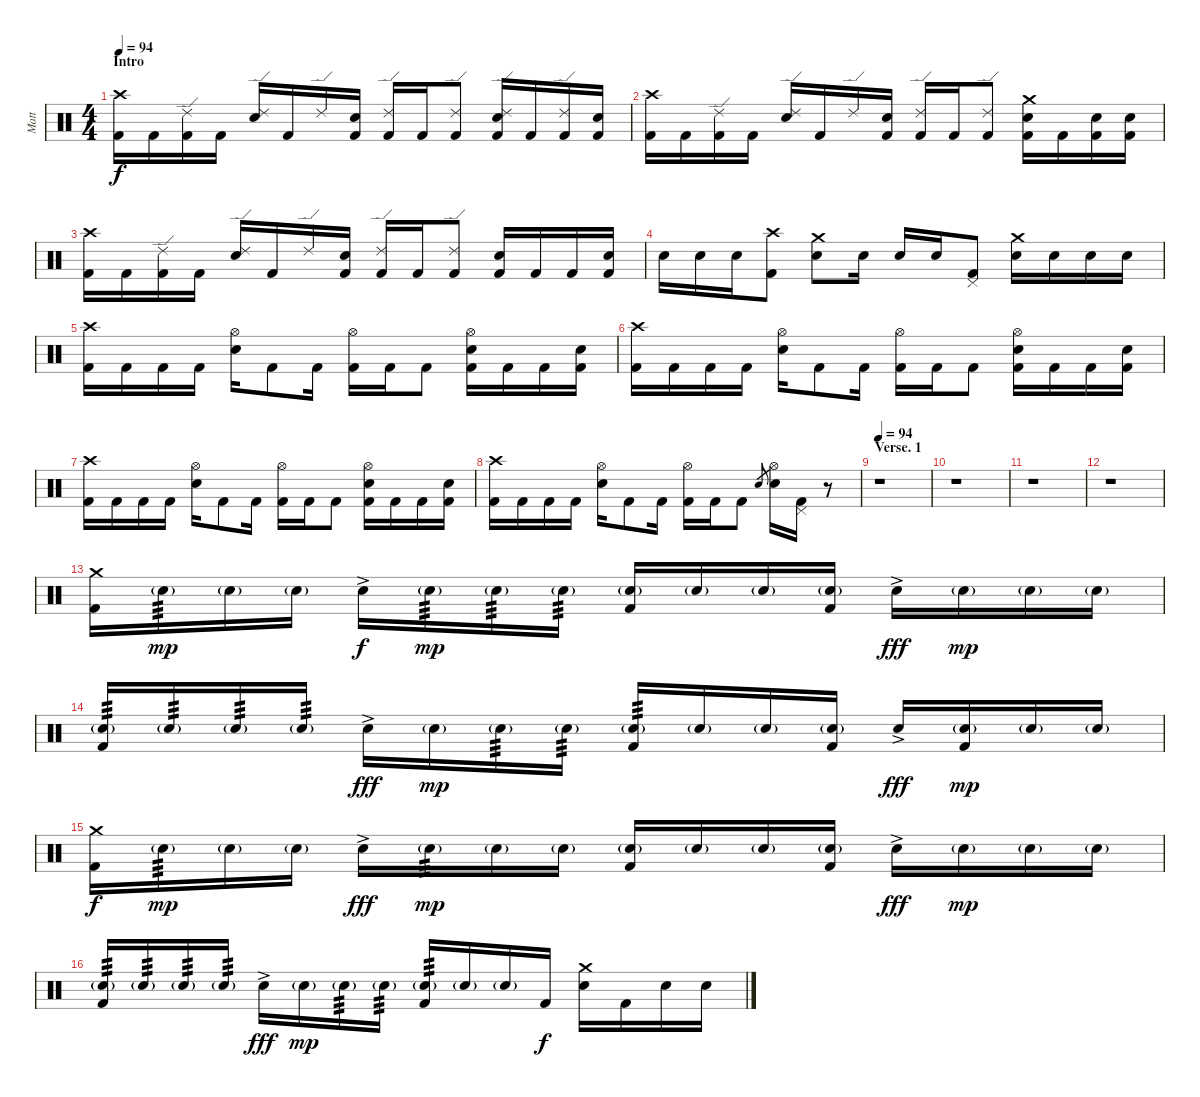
\track ("Matt" "Matt") {instrument percussion}
\staff {score}
\articulation defaults
\ts (4 4)
\section ("" "Intro")
\tempo 94
\clef neutral
\ks c
("Crash high (hit)" "Kick (hit) 2").16{dy f} "Kick (hit) 2".16 ("Ride (edge) 2" "Kick (hit) 2").16 "Kick (hit) 2".16 ("Ride (edge) 2" "Electric Snare (hit)").16 "Kick (hit) 2".16 "Ride (edge) 2".16 ("Electric Snare (hit)" "Kick (hit) 2").16 ("Ride (edge) 2" "Kick (hit) 2").16 "Kick (hit) 2".16 ("Ride (edge) 2" "Kick (hit) 2").8 ("Ride (edge) 2" "Electric Snare (hit)" "Kick (hit) 2").16 "Kick (hit) 2".16 ("Ride (edge) 2" "Kick (hit) 2").16 ("Electric Snare (hit)" "Kick (hit) 2").16 |
("Crash high (hit)" "Kick (hit) 2").16 "Kick (hit) 2".16 ("Ride (edge) 2" "Kick (hit) 2").16 "Kick (hit) 2".16 ("Ride (edge) 2" "Electric Snare (hit)").16 "Kick (hit) 2".16 "Ride (edge) 2".16 ("Electric Snare (hit)" "Kick (hit) 2").16 ("Ride (edge) 2" "Kick (hit) 2").16 "Kick (hit) 2".16 ("Ride (edge) 2" "Kick (hit) 2").8 ("Crash medium (hit)" "Electric Snare (hit)" "Kick (hit) 2").16 "Kick (hit) 2".16 ("Electric Snare (hit)" "Kick (hit) 2").16 ("Electric Snare (hit)" "Kick (hit) 2").16 |
("Crash high (hit)" "Kick (hit) 2").16 "Kick (hit) 2".16 ("Ride (edge) 2" "Kick (hit) 2").16 "Kick (hit) 2".16 ("Ride (edge) 2" "Electric Snare (hit)").16 "Kick (hit) 2".16 "Ride (edge) 2".16 ("Electric Snare (hit)" "Kick (hit) 2").16 ("Ride (edge) 2" "Kick (hit) 2").16 "Kick (hit) 2".16 ("Ride (edge) 2" "Kick (hit) 2").8 ("Electric Snare (hit)" "Kick (hit) 2").16 "Kick (hit) 2".16 "Kick (hit) 2".16 ("Electric Snare (hit)" "Kick (hit) 2").16 |
"Electric Snare (hit)".16 "Electric Snare (hit)".16 "Electric Snare (hit)".16 ("Crash high (hit)" "Kick (hit) 2").8 ("Crash medium (hit)" "Electric Snare (hit)").8 "Electric Snare (hit)".16 "Electric Snare (hit)".16 "Electric Snare (hit)".16 ("Pedal Hi-Hat (hit)" "Kick (hit) 2").8 ("Crash medium (hit)" "Electric Snare (hit)").16 "Electric Snare (hit)".16 "Electric Snare (hit)".16 "Electric Snare (hit)".16 |
("Crash high (hit)" "Kick (hit) 2").16 "Kick (hit) 2".16 "Kick (hit) 2".16 "Kick (hit) 2".16 ("Hi-Hat (open)" "Electric Snare (hit)").16 "Kick (hit) 2".8 "Kick (hit) 2".16 ("Hi-Hat (open)" "Kick (hit) 2").16 "Kick (hit) 2".16 "Kick (hit) 2".8 ("Hi-Hat (open)" "Electric Snare (hit)" "Kick (hit) 2").16 "Kick (hit) 2".16 "Kick (hit) 2".16 ("Electric Snare (hit)" "Kick (hit) 2").16 |
("Crash high (hit)" "Kick (hit) 2").16 "Kick (hit) 2".16 "Kick (hit) 2".16 "Kick (hit) 2".16 ("Hi-Hat (open)" "Electric Snare (hit)").16 "Kick (hit) 2".8 "Kick (hit) 2".16 ("Hi-Hat (open)" "Kick (hit) 2").16 "Kick (hit) 2".16 "Kick (hit) 2".8 ("Hi-Hat (open)" "Electric Snare (hit)" "Kick (hit) 2").16 "Kick (hit) 2".16 "Kick (hit) 2".16 ("Electric Snare (hit)" "Kick (hit) 2").16 |
("Crash high (hit)" "Kick (hit) 2").16 "Kick (hit) 2".16 "Kick (hit) 2".16 "Kick (hit) 2".16 ("Hi-Hat (open)" "Electric Snare (hit)").16 "Kick (hit) 2".8 "Kick (hit) 2".16 ("Hi-Hat (open)" "Kick (hit) 2").16 "Kick (hit) 2".16 "Kick (hit) 2".8 ("Hi-Hat (open)" "Electric Snare (hit)" "Kick (hit) 2").16 "Kick (hit) 2".16 "Kick (hit) 2".16 ("Electric Snare (hit)" "Kick (hit) 2").16 |
("Crash high (hit)" "Kick (hit) 2").16 "Kick (hit) 2".16 "Kick (hit) 2".16 "Kick (hit) 2".16 ("Hi-Hat (open)" "Electric Snare (hit)").16 "Kick (hit) 2".8 "Kick (hit) 2".16 ("Hi-Hat (open)" "Kick (hit) 2").16 "Kick (hit) 2".16 "Kick (hit) 2".8 "Electric Snare (hit)".8{gr} ("Hi-Hat (open)" "Electric Snare (hit)").16 ("Pedal Hi-Hat (hit)" "Kick (hit) 2").16 r.8 |
\section ("" "Verse. 1")
\tempo 94
r.1 |
r.1 |
r.1 |
r.1 |
("Crash medium (hit)" "Kick (hit) 2").16 "Electric Snare (hit)"{g}.16{tp 3 dy mp} "Electric Snare (hit)"{g}.16 "Electric Snare (hit)"{g}.16 "Electric Snare (hit)"{ac}.16{dy f} "Electric Snare (hit)"{g}.16{tp 3 dy mp} "Electric Snare (hit)"{g}.16{tp 3} "Electric Snare (hit)"{g}.16{tp 3} ("Electric Snare (hit)"{g} "Kick (hit) 2").16 "Electric Snare (hit)"{g}.16 "Electric Snare (hit)"{g}.16 ("Electric Snare (hit)"{g} "Kick (hit) 2").16 "Electric Snare (hit)"{ac}.16{dy fff} "Electric Snare (hit)"{g}.16{dy mp} "Electric Snare (hit)"{g}.16 "Electric Snare (hit)"{g}.16 |
("Electric Snare (hit)"{g} "Kick (hit) 2").16{tp 3} "Electric Snare (hit)"{g}.16{tp 3} "Electric Snare (hit)"{g}.16{tp 3} "Electric Snare (hit)"{g}.16{tp 3} "Electric Snare (hit)"{ac}.16{dy fff} "Electric Snare (hit)"{g}.16{dy mp} "Electric Snare (hit)"{g}.16{tp 3} "Electric Snare (hit)"{g}.16{tp 3} ("Electric Snare (hit)"{g} "Kick (hit) 2").16{tp 3} "Electric Snare (hit)"{g}.16 "Electric Snare (hit)"{g}.16 ("Electric Snare (hit)"{g} "Kick (hit) 2").16 "Electric Snare (hit)"{ac}.16{dy fff} ("Electric Snare (hit)"{g} "Kick (hit) 2").16{dy mp} "Electric Snare (hit)"{g}.16 "Electric Snare (hit)"{g}.16 |
("Crash medium (hit)" "Kick (hit) 2").16{dy f} "Electric Snare (hit)"{g}.16{tp 3 dy mp} "Electric Snare (hit)"{g}.16 "Electric Snare (hit)"{g}.16 "Electric Snare (hit)"{ac}.16{dy fff} "Electric Snare (hit)"{g}.16{tp 3 dy mp} "Electric Snare (hit)"{g}.16 "Electric Snare (hit)"{g}.16 ("Electric Snare (hit)"{g} "Kick (hit) 2").16 "Electric Snare (hit)"{g}.16 "Electric Snare (hit)"{g}.16 ("Electric Snare (hit)"{g} "Kick (hit) 2").16 "Electric Snare (hit)"{ac}.16{dy fff} "Electric Snare (hit)"{g}.16{dy mp} "Electric Snare (hit)"{g}.16 "Electric Snare (hit)"{g}.16 |
("Electric Snare (hit)"{g} "Kick (hit) 2").16{tp 3} "Electric Snare (hit)"{g}.16{tp 3} "Electric Snare (hit)"{g}.16{tp 3} "Electric Snare (hit)"{g}.16{tp 3} "Electric Snare (hit)"{ac}.16{dy fff} "Electric Snare (hit)"{g}.16{dy mp} "Electric Snare (hit)"{g}.16{tp 3} "Electric Snare (hit)"{g}.16{tp 3} ("Electric Snare (hit)"{g} "Kick (hit) 2").16{tp 3} "Electric Snare (hit)"{g}.16 "Electric Snare (hit)"{g}.16 "Kick (hit) 2".16{dy f} ("Crash medium (hit)" "Electric Snare (hit)").16 "Kick (hit) 2".16 "Electric Snare (hit)".16 "Electric Snare (hit)".16
